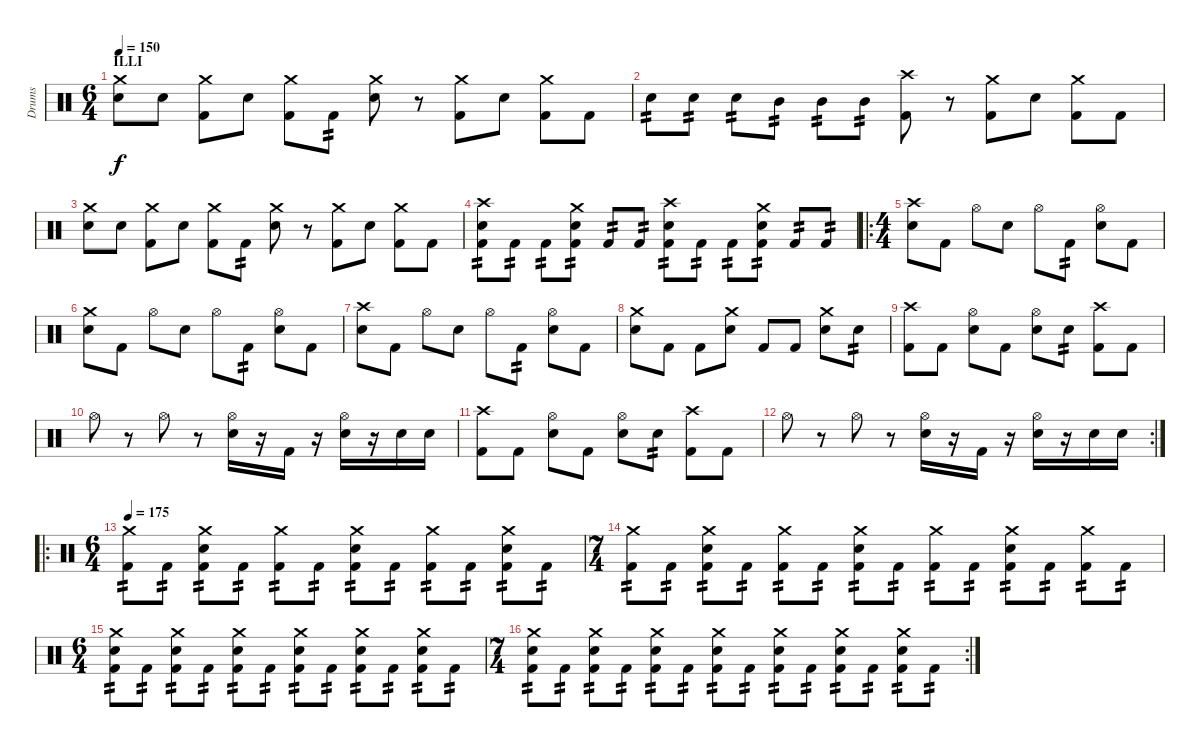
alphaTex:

\track ("Drums" "Drums") {instrument percussion}
\staff {score}
\articulation defaults
\ts (6 4)
\section ("" "ILLI")
\tempo 150
\tempo 147
\tempo 150
\clef neutral
\ks c
("Crash medium (hit)" "Electric Snare (hit)").8{dy f} "Electric Snare (hit)".8 ("Crash medium (hit)" "Kick (hit) 2").8 "Electric Snare (hit)".8 ("Crash medium (hit)" "Kick (hit) 2").8 "Kick (hit) 2".8{tp 2} ("Crash medium (hit)" "Electric Snare (hit)").8 r.8 ("Crash medium (hit)" "Kick (hit) 2").8 "Electric Snare (hit)".8 ("Crash medium (hit)" "Kick (hit) 2").8 "Kick (hit) 2".8 |
"Electric Snare (hit)".8{tp 2} "Electric Snare (hit)".8{tp 2} "Electric Snare (hit)".8{tp 2} "Mid Tom (hit)".8{tp 2} "Mid Tom (hit)".8{tp 2} "Mid Tom (hit)".8{tp 2} ("Crash high (hit)" "Kick (hit) 2").8 r.8 ("Crash medium (hit)" "Kick (hit) 2").8 "Electric Snare (hit)".8 ("Crash medium (hit)" "Kick (hit) 2").8 "Kick (hit) 2".8 |
("Crash medium (hit)" "Electric Snare (hit)").8 "Electric Snare (hit)".8 ("Crash medium (hit)" "Kick (hit) 2").8 "Electric Snare (hit)".8 ("Crash medium (hit)" "Kick (hit) 2").8 "Kick (hit) 2".8{tp 2} ("Crash medium (hit)" "Electric Snare (hit)").8 r.8 ("Crash medium (hit)" "Kick (hit) 2").8 "Electric Snare (hit)".8 ("Crash medium (hit)" "Kick (hit) 2").8 "Kick (hit) 2".8 |
("Crash high (hit)" "Electric Snare (hit)" "Kick (hit) 2").8{tp 2} "Kick (hit) 2".8{tp 2} "Kick (hit) 2".8{tp 2} ("Crash medium (hit)" "Electric Snare (hit)" "Kick (hit) 2").8{tp 2} "Kick (hit) 2".8{tp 2} "Kick (hit) 2".8{tp 2} ("Crash high (hit)" "Electric Snare (hit)" "Kick (hit) 2").8{tp 2} "Kick (hit) 2".8{tp 2} "Kick (hit) 2".8{tp 2} ("Crash medium (hit)" "Electric Snare (hit)" "Kick (hit) 2").8{tp 2} "Kick (hit) 2".8{tp 2} "Kick (hit) 2".8{tp 2} |
\ro
\ts (4 4)
("Crash high (hit)" "Electric Snare (hit)").8 "Kick (hit) 2".8 "Hi-Hat (open)".8 "Electric Snare (hit)".8 "Hi-Hat (open)".8 "Kick (hit) 2".8{tp 2} ("Hi-Hat (open)" "Electric Snare (hit)").8 "Kick (hit) 2".8 |
("Crash medium (hit)" "Electric Snare (hit)").8 "Kick (hit) 2".8 "Hi-Hat (open)".8 "Electric Snare (hit)".8 "Hi-Hat (open)".8 "Kick (hit) 2".8{tp 2} ("Hi-Hat (open)" "Electric Snare (hit)").8 "Kick (hit) 2".8 |
("Crash high (hit)" "Electric Snare (hit)").8 "Kick (hit) 2".8 "Hi-Hat (open)".8 "Electric Snare (hit)".8 "Hi-Hat (open)".8 "Kick (hit) 2".8{tp 2} ("Hi-Hat (open)" "Electric Snare (hit)").8 "Kick (hit) 2".8 |
("Crash medium (hit)" "Electric Snare (hit)").8 "Kick (hit) 2".8 "Kick (hit) 2".8 ("Crash medium (hit)" "Electric Snare (hit)").8 "Kick (hit) 2".8 "Kick (hit) 2".8 ("Crash medium (hit)" "Electric Snare (hit)").8 "Electric Snare (hit)".8{tp 2} |
("Crash high (hit)" "Kick (hit) 2").8 "Kick (hit) 2".8 ("Hi-Hat (open)" "Electric Snare (hit)").8 "Kick (hit) 2".8 ("Hi-Hat (open)" "Electric Snare (hit)").8 "Electric Snare (hit)".8{tp 2} ("Crash high (hit)" "Kick (hit) 2").8 "Kick (hit) 2".8 |
"Hi-Hat (open)".8 r.8 "Hi-Hat (open)".8 r.8 ("Hi-Hat (open)" "Electric Snare (hit)").16 r.16 "Kick (hit) 2".16 r.16 ("Hi-Hat (open)" "Electric Snare (hit)").16 r.16 "Electric Snare (hit)".16 "Electric Snare (hit)".16 |
("Crash high (hit)" "Kick (hit) 2").8 "Kick (hit) 2".8 ("Hi-Hat (open)" "Electric Snare (hit)").8 "Kick (hit) 2".8 ("Hi-Hat (open)" "Electric Snare (hit)").8 "Electric Snare (hit)".8{tp 2} ("Crash high (hit)" "Kick (hit) 2").8 "Kick (hit) 2".8 |
\rc 2 "Hi-Hat (open)".8
r.8 "Hi-Hat (open)".8 r.8 ("Hi-Hat (open)" "Electric Snare (hit)").16 r.16 "Kick (hit) 2".16 r.16 ("Hi-Hat (open)" "Snare (hit) 2").16 r.16 "Electric Snare (hit)".16 "Electric Snare (hit)".16 |
\ro
\ts (6 4)
\tempo 175
("Crash medium (hit)" "Kick (hit) 2").8{tp 2} "Kick (hit) 2".8{tp 2} ("Crash medium (hit)" "Electric Snare (hit)" "Kick (hit) 2").8{tp 2} "Kick (hit) 2".8{tp 2} ("Crash medium (hit)" "Kick (hit) 2").8{tp 2} "Kick (hit) 2".8{tp 2} ("Crash medium (hit)" "Electric Snare (hit)" "Kick (hit) 2").8{tp 2} "Kick (hit) 2".8{tp 2} ("Crash medium (hit)" "Kick (hit) 2").8{tp 2} "Kick (hit) 2".8{tp 2} ("Crash medium (hit)" "Electric Snare (hit)" "Kick (hit) 2").8{tp 2} "Kick (hit) 2".8{tp 2} |
\ts (7 4)
("Crash medium (hit)" "Kick (hit) 2").8{tp 2} "Kick (hit) 2".8{tp 2} ("Crash medium (hit)" "Electric Snare (hit)" "Kick (hit) 2").8{tp 2} "Kick (hit) 2".8{tp 2} ("Crash medium (hit)" "Kick (hit) 2").8{tp 2} "Kick (hit) 2".8{tp 2} ("Crash medium (hit)" "Electric Snare (hit)" "Kick (hit) 2").8{tp 2} "Kick (hit) 2".8{tp 2} ("Crash medium (hit)" "Kick (hit) 2").8{tp 2} "Kick (hit) 2".8{tp 2} ("Crash medium (hit)" "Electric Snare (hit)" "Kick (hit) 2").8{tp 2} "Kick (hit) 2".8{tp 2} ("Crash medium (hit)" "Kick (hit) 2").8{tp 2} "Kick (hit) 2".8{tp 2} |
\ts (6 4)
("Crash medium (hit)" "Electric Snare (hit)" "Kick (hit) 2").8{tp 2} "Kick (hit) 2".8{tp 2} ("Crash medium (hit)" "Electric Snare (hit)" "Kick (hit) 2").8{tp 2} "Kick (hit) 2".8{tp 2} ("Crash medium (hit)" "Electric Snare (hit)" "Kick (hit) 2").8{tp 2} "Kick (hit) 2".8{tp 2} ("Crash medium (hit)" "Electric Snare (hit)" "Kick (hit) 2").8{tp 2} "Kick (hit) 2".8{tp 2} ("Crash medium (hit)" "Electric Snare (hit)" "Kick (hit) 2").8{tp 2} "Kick (hit) 2".8{tp 2} ("Crash medium (hit)" "Electric Snare (hit)" "Kick (hit) 2").8{tp 2} "Kick (hit) 2".8{tp 2} |
\rc 2
\ts (7 4)
("Crash medium (hit)" "Electric Snare (hit)" "Kick (hit) 2").8{tp 2} "Kick (hit) 2".8{tp 2} ("Crash medium (hit)" "Electric Snare (hit)" "Kick (hit) 2").8{tp 2} "Kick (hit) 2".8{tp 2} ("Crash medium (hit)" "Electric Snare (hit)" "Kick (hit) 2").8{tp 2} "Kick (hit) 2".8{tp 2} ("Crash medium (hit)" "Electric Snare (hit)" "Kick (hit) 2").8{tp 2} "Kick (hit) 2".8{tp 2} ("Crash medium (hit)" "Electric Snare (hit)" "Kick (hit) 2").8{tp 2} "Kick (hit) 2".8{tp 2} ("Crash medium (hit)" "Electric Snare (hit)" "Kick (hit) 2").8{tp 2} "Kick (hit) 2".8{tp 2} ("Crash medium (hit)" "Electric Snare (hit)" "Kick (hit) 2").8{tp 2} "Kick (hit) 2".8{tp 2}
